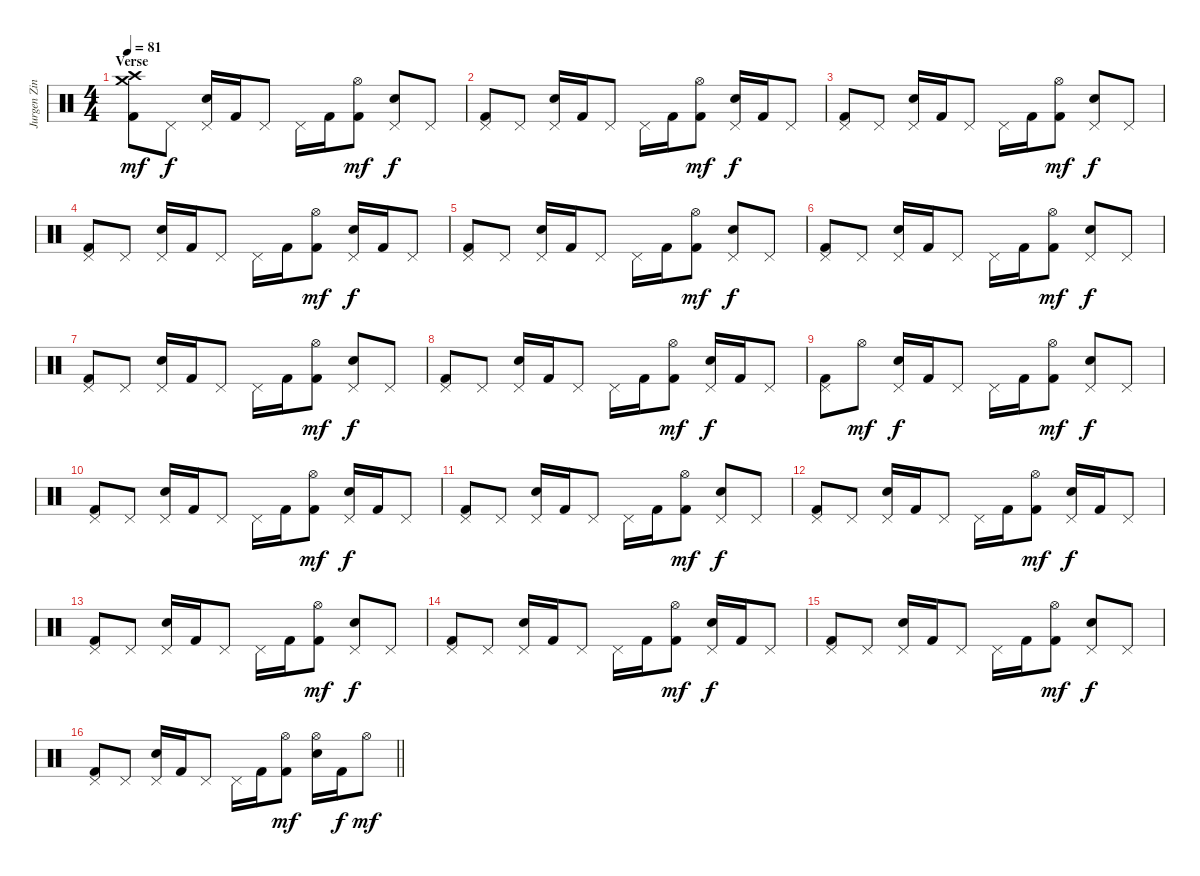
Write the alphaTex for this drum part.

\track ("Jurgen Zing" "Jurgen Zin") {instrument percussion}
\staff {score}
\articulation defaults
\ts (4 4)
\section ("" "Verse")
\tempo 81
\clef neutral
\ks c
("Crash medium (hit)" "Crash high (hit)" "Kick (hit) 2").8{dy mf} "Pedal Hi-Hat (hit)".8{dy f} ("Pedal Hi-Hat (hit)" "Electric Snare (hit)").16 "Kick (hit) 2".16 "Pedal Hi-Hat (hit)".8 "Pedal Hi-Hat (hit)".16 "Kick (hit) 2".16 ("Hi-Hat (open)" "Kick (hit) 2").8{dy mf} ("Pedal Hi-Hat (hit)" "Electric Snare (hit)").8{dy f} "Pedal Hi-Hat (hit)".8 |
("Pedal Hi-Hat (hit)" "Kick (hit) 2").8 "Pedal Hi-Hat (hit)".8 ("Pedal Hi-Hat (hit)" "Electric Snare (hit)").16 "Kick (hit) 2".16 "Pedal Hi-Hat (hit)".8 "Pedal Hi-Hat (hit)".16 "Kick (hit) 2".16 ("Hi-Hat (open)" "Kick (hit) 2").8{dy mf} ("Pedal Hi-Hat (hit)" "Electric Snare (hit)").16{dy f} "Kick (hit) 2".16 "Pedal Hi-Hat (hit)".8 |
("Pedal Hi-Hat (hit)" "Kick (hit) 2").8 "Pedal Hi-Hat (hit)".8 ("Pedal Hi-Hat (hit)" "Electric Snare (hit)").16 "Kick (hit) 2".16 "Pedal Hi-Hat (hit)".8 "Pedal Hi-Hat (hit)".16 "Kick (hit) 2".16 ("Hi-Hat (open)" "Kick (hit) 2").8{dy mf} ("Pedal Hi-Hat (hit)" "Electric Snare (hit)").8{dy f} "Pedal Hi-Hat (hit)".8 |
("Pedal Hi-Hat (hit)" "Kick (hit) 2").8 "Pedal Hi-Hat (hit)".8 ("Pedal Hi-Hat (hit)" "Electric Snare (hit)").16 "Kick (hit) 2".16 "Pedal Hi-Hat (hit)".8 "Pedal Hi-Hat (hit)".16 "Kick (hit) 2".16 ("Hi-Hat (open)" "Kick (hit) 2").8{dy mf} ("Pedal Hi-Hat (hit)" "Electric Snare (hit)").16{dy f} "Kick (hit) 2".16 "Pedal Hi-Hat (hit)".8 |
("Pedal Hi-Hat (hit)" "Kick (hit) 2").8 "Pedal Hi-Hat (hit)".8 ("Pedal Hi-Hat (hit)" "Electric Snare (hit)").16 "Kick (hit) 2".16 "Pedal Hi-Hat (hit)".8 "Pedal Hi-Hat (hit)".16 "Kick (hit) 2".16 ("Hi-Hat (open)" "Kick (hit) 2").8{dy mf} ("Pedal Hi-Hat (hit)" "Electric Snare (hit)").8{dy f} "Pedal Hi-Hat (hit)".8 |
("Pedal Hi-Hat (hit)" "Kick (hit) 2").8 "Pedal Hi-Hat (hit)".8 ("Pedal Hi-Hat (hit)" "Electric Snare (hit)").16 "Kick (hit) 2".16 "Pedal Hi-Hat (hit)".8 "Pedal Hi-Hat (hit)".16 "Kick (hit) 2".16 ("Hi-Hat (open)" "Kick (hit) 2").8{dy mf} ("Pedal Hi-Hat (hit)" "Electric Snare (hit)").8{dy f} "Pedal Hi-Hat (hit)".8 |
("Pedal Hi-Hat (hit)" "Kick (hit) 2").8 "Pedal Hi-Hat (hit)".8 ("Pedal Hi-Hat (hit)" "Electric Snare (hit)").16 "Kick (hit) 2".16 "Pedal Hi-Hat (hit)".8 "Pedal Hi-Hat (hit)".16 "Kick (hit) 2".16 ("Hi-Hat (open)" "Kick (hit) 2").8{dy mf} ("Pedal Hi-Hat (hit)" "Electric Snare (hit)").8{dy f} "Pedal Hi-Hat (hit)".8 |
("Pedal Hi-Hat (hit)" "Kick (hit) 2").8 "Pedal Hi-Hat (hit)".8 ("Pedal Hi-Hat (hit)" "Electric Snare (hit)").16 "Kick (hit) 2".16 "Pedal Hi-Hat (hit)".8 "Pedal Hi-Hat (hit)".16 "Kick (hit) 2".16 ("Hi-Hat (open)" "Kick (hit) 2").8{dy mf} ("Pedal Hi-Hat (hit)" "Electric Snare (hit)").16{dy f} "Kick (hit) 2".16 "Pedal Hi-Hat (hit)".8 |
("Pedal Hi-Hat (hit)" "Kick (hit) 2").8 "Hi-Hat (open)".8{dy mf} ("Pedal Hi-Hat (hit)" "Electric Snare (hit)").16{dy f} "Kick (hit) 2".16 "Pedal Hi-Hat (hit)".8 "Pedal Hi-Hat (hit)".16 "Kick (hit) 2".16 ("Hi-Hat (open)" "Kick (hit) 2").8{dy mf} ("Pedal Hi-Hat (hit)" "Electric Snare (hit)").8{dy f} "Pedal Hi-Hat (hit)".8 |
("Pedal Hi-Hat (hit)" "Kick (hit) 2").8 "Pedal Hi-Hat (hit)".8 ("Pedal Hi-Hat (hit)" "Electric Snare (hit)").16 "Kick (hit) 2".16 "Pedal Hi-Hat (hit)".8 "Pedal Hi-Hat (hit)".16 "Kick (hit) 2".16 ("Hi-Hat (open)" "Kick (hit) 2").8{dy mf} ("Pedal Hi-Hat (hit)" "Electric Snare (hit)").16{dy f} "Kick (hit) 2".16 "Pedal Hi-Hat (hit)".8 |
("Pedal Hi-Hat (hit)" "Kick (hit) 2").8 "Pedal Hi-Hat (hit)".8 ("Pedal Hi-Hat (hit)" "Electric Snare (hit)").16 "Kick (hit) 2".16 "Pedal Hi-Hat (hit)".8 "Pedal Hi-Hat (hit)".16 "Kick (hit) 2".16 ("Hi-Hat (open)" "Kick (hit) 2").8{dy mf} ("Pedal Hi-Hat (hit)" "Electric Snare (hit)").8{dy f} "Pedal Hi-Hat (hit)".8 |
("Pedal Hi-Hat (hit)" "Kick (hit) 2").8 "Pedal Hi-Hat (hit)".8 ("Pedal Hi-Hat (hit)" "Electric Snare (hit)").16 "Kick (hit) 2".16 "Pedal Hi-Hat (hit)".8 "Pedal Hi-Hat (hit)".16 "Kick (hit) 2".16 ("Hi-Hat (open)" "Kick (hit) 2").8{dy mf} ("Pedal Hi-Hat (hit)" "Electric Snare (hit)").16{dy f} "Kick (hit) 2".16 "Pedal Hi-Hat (hit)".8 |
("Pedal Hi-Hat (hit)" "Kick (hit) 2").8 "Pedal Hi-Hat (hit)".8 ("Pedal Hi-Hat (hit)" "Electric Snare (hit)").16 "Kick (hit) 2".16 "Pedal Hi-Hat (hit)".8 "Pedal Hi-Hat (hit)".16 "Kick (hit) 2".16 ("Hi-Hat (open)" "Kick (hit) 2").8{dy mf} ("Pedal Hi-Hat (hit)" "Electric Snare (hit)").8{dy f} "Pedal Hi-Hat (hit)".8 |
("Pedal Hi-Hat (hit)" "Kick (hit) 2").8 "Pedal Hi-Hat (hit)".8 ("Pedal Hi-Hat (hit)" "Electric Snare (hit)").16 "Kick (hit) 2".16 "Pedal Hi-Hat (hit)".8 "Pedal Hi-Hat (hit)".16 "Kick (hit) 2".16 ("Hi-Hat (open)" "Kick (hit) 2").8{dy mf} ("Pedal Hi-Hat (hit)" "Electric Snare (hit)").16{dy f} "Kick (hit) 2".16 "Pedal Hi-Hat (hit)".8 |
("Pedal Hi-Hat (hit)" "Kick (hit) 2").8 "Pedal Hi-Hat (hit)".8 ("Pedal Hi-Hat (hit)" "Electric Snare (hit)").16 "Kick (hit) 2".16 "Pedal Hi-Hat (hit)".8 "Pedal Hi-Hat (hit)".16 "Kick (hit) 2".16 ("Hi-Hat (open)" "Kick (hit) 2").8{dy mf} ("Pedal Hi-Hat (hit)" "Electric Snare (hit)").8{dy f} "Pedal Hi-Hat (hit)".8 |
\barLineRight lightlight
("Pedal Hi-Hat (hit)" "Kick (hit) 2").8 "Pedal Hi-Hat (hit)".8 ("Pedal Hi-Hat (hit)" "Electric Snare (hit)").16 "Kick (hit) 2".16 "Pedal Hi-Hat (hit)".8 "Pedal Hi-Hat (hit)".16 "Kick (hit) 2".16 ("Hi-Hat (open)" "Kick (hit) 2").8{dy mf} ("Hi-Hat (open)" "Electric Snare (hit)").16 "Kick (hit) 2".16{dy f} "Hi-Hat (open)".8{dy mf}
